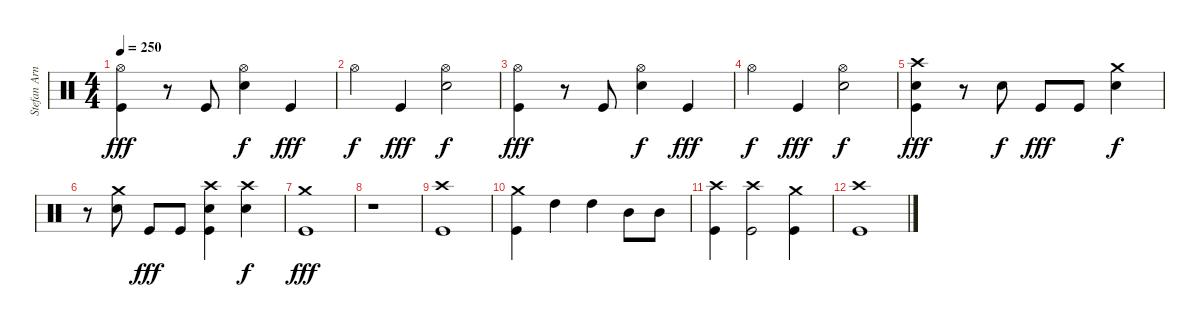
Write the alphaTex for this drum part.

\track ("Stefan Arnold (Batería)" "Stefan Arn") {instrument percussion}
\staff {score}
\articulation defaults
\ts (4 4)
\tempo 250
\clef neutral
\ks c
("Hi-Hat (open)" "Kick (hit)").4{dy fff} r.8 "Kick (hit)".8 ("Hi-Hat (open)" "Electric Snare (hit)").4{dy f} "Kick (hit)".4{dy fff} |
"Hi-Hat (open)".4{dy f} "Kick (hit)".4{dy fff} ("Hi-Hat (open)" "Electric Snare (hit)").2{dy f} |
("Hi-Hat (open)" "Kick (hit)").4{dy fff} r.8 "Kick (hit)".8 ("Hi-Hat (open)" "Electric Snare (hit)").4{dy f} "Kick (hit)".4{dy fff} |
"Hi-Hat (open)".4{dy f} "Kick (hit)".4{dy fff} ("Hi-Hat (open)" "Electric Snare (hit)").2{dy f} |
("Crash high (hit)" "Electric Snare (hit)" "Kick (hit)").4{dy fff} r.8 "Electric Snare (hit)".8{dy f} "Kick (hit)".8{dy fff} "Kick (hit)".8 ("Crash medium (hit)" "Electric Snare (hit)").4{dy f} |
r.8 ("Crash medium (hit)" "Electric Snare (hit)").8 "Kick (hit)".8{dy fff} "Kick (hit)".8 ("Crash high (hit)" "Electric Snare (hit)" "Kick (hit)").4 ("Crash high (hit)" "Electric Snare (hit)").4{dy f} |
("Crash medium (hit)" "Kick (hit)").1{dy fff} |
r.1 |
("Crash high (hit)" "Kick (hit)").1 |
("Crash medium (hit)" "Kick (hit)").4 "High Tom (hit)".4 "High Tom (hit)".4 "Mid Tom (hit)".8 "Mid Tom (hit)".8 |
("Crash high (hit)" "Kick (hit)").4 ("Crash high (hit)" "Kick (hit)").2 ("Crash medium (hit)" "Kick (hit)").4 |
("Crash high (hit)" "Kick (hit)").1
